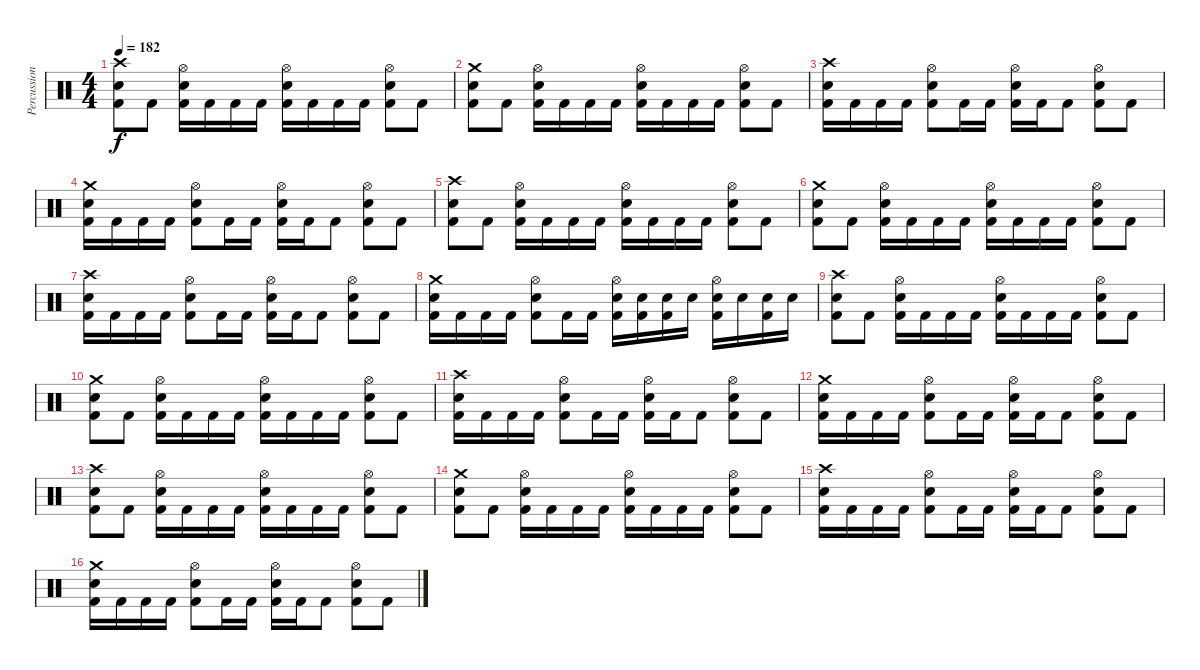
\track ("Percussion" "Percussion") {instrument percussion}
\staff {score}
\articulation defaults
\ts (4 4)
\tempo 182
\clef neutral
\ks c
("Crash high (hit)" "Snare (hit) 2" "Kick (hit) 2").8{dy f} "Kick (hit) 2".8 ("Hi-Hat (open)" "Snare (hit) 2" "Kick (hit) 2").16 "Kick (hit) 2".16 "Kick (hit) 2".16 "Kick (hit) 2".16 ("Hi-Hat (open)" "Snare (hit) 2" "Kick (hit) 2").16 "Kick (hit) 2".16 "Kick (hit) 2".16 "Kick (hit) 2".16 ("Hi-Hat (open)" "Snare (hit) 2" "Kick (hit) 2").8 "Kick (hit) 2".8 |
("Crash medium (hit)" "Snare (hit) 2" "Kick (hit) 2").8 "Kick (hit) 2".8 ("Hi-Hat (open)" "Snare (hit) 2" "Kick (hit) 2").16 "Kick (hit) 2".16 "Kick (hit) 2".16 "Kick (hit) 2".16 ("Hi-Hat (open)" "Snare (hit) 2" "Kick (hit) 2").16 "Kick (hit) 2".16 "Kick (hit) 2".16 "Kick (hit) 2".16 ("Hi-Hat (open)" "Snare (hit) 2" "Kick (hit) 2").8 "Kick (hit) 2".8 |
("Crash high (hit)" "Snare (hit) 2" "Kick (hit) 2").16 "Kick (hit) 2".16 "Kick (hit) 2".16 "Kick (hit) 2".16 ("Hi-Hat (open)" "Snare (hit) 2" "Kick (hit) 2").8 "Kick (hit) 2".16 "Kick (hit) 2".16 ("Hi-Hat (open)" "Snare (hit) 2" "Kick (hit) 2").16 "Kick (hit) 2".16 "Kick (hit) 2".8 ("Hi-Hat (open)" "Snare (hit) 2" "Kick (hit) 2").8 "Kick (hit) 2".8 |
("Crash medium (hit)" "Snare (hit) 2" "Kick (hit) 2").16 "Kick (hit) 2".16 "Kick (hit) 2".16 "Kick (hit) 2".16 ("Hi-Hat (open)" "Snare (hit) 2" "Kick (hit) 2").8 "Kick (hit) 2".16 "Kick (hit) 2".16 ("Hi-Hat (open)" "Snare (hit) 2" "Kick (hit) 2").16 "Kick (hit) 2".16 "Kick (hit) 2".8 ("Hi-Hat (open)" "Snare (hit) 2" "Kick (hit) 2").8 "Kick (hit) 2".8 |
("Crash high (hit)" "Snare (hit) 2" "Kick (hit) 2").8 "Kick (hit) 2".8 ("Hi-Hat (open)" "Snare (hit) 2" "Kick (hit) 2").16 "Kick (hit) 2".16 "Kick (hit) 2".16 "Kick (hit) 2".16 ("Hi-Hat (open)" "Snare (hit) 2" "Kick (hit) 2").16 "Kick (hit) 2".16 "Kick (hit) 2".16 "Kick (hit) 2".16 ("Hi-Hat (open)" "Snare (hit) 2" "Kick (hit) 2").8 "Kick (hit) 2".8 |
("Crash medium (hit)" "Snare (hit) 2" "Kick (hit) 2").8 "Kick (hit) 2".8 ("Hi-Hat (open)" "Snare (hit) 2" "Kick (hit) 2").16 "Kick (hit) 2".16 "Kick (hit) 2".16 "Kick (hit) 2".16 ("Hi-Hat (open)" "Snare (hit) 2" "Kick (hit) 2").16 "Kick (hit) 2".16 "Kick (hit) 2".16 "Kick (hit) 2".16 ("Hi-Hat (open)" "Snare (hit) 2" "Kick (hit) 2").8 "Kick (hit) 2".8 |
("Crash high (hit)" "Snare (hit) 2" "Kick (hit) 2").16 "Kick (hit) 2".16 "Kick (hit) 2".16 "Kick (hit) 2".16 ("Hi-Hat (open)" "Snare (hit) 2" "Kick (hit) 2").8 "Kick (hit) 2".16 "Kick (hit) 2".16 ("Hi-Hat (open)" "Snare (hit) 2" "Kick (hit) 2").16 "Kick (hit) 2".16 "Kick (hit) 2".8 ("Hi-Hat (open)" "Snare (hit) 2" "Kick (hit) 2").8 "Kick (hit) 2".8 |
("Crash medium (hit)" "Snare (hit) 2" "Kick (hit) 2").16 "Kick (hit) 2".16 "Kick (hit) 2".16 "Kick (hit) 2".16 ("Hi-Hat (open)" "Snare (hit) 2" "Kick (hit) 2").8 "Kick (hit) 2".16 "Kick (hit) 2".16 ("Hi-Hat (open)" "Snare (hit) 2" "Kick (hit) 2").16 ("Snare (hit) 2" "Kick (hit) 2").16 ("Snare (hit) 2" "Kick (hit) 2").16 "Snare (hit) 2".16 ("Hi-Hat (open)" "Snare (hit) 2" "Kick (hit) 2").16 "Snare (hit) 2".16 ("Snare (hit) 2" "Kick (hit) 2").16 "Snare (hit) 2".16 |
("Crash high (hit)" "Snare (hit) 2" "Kick (hit) 2").8 "Kick (hit) 2".8 ("Hi-Hat (open)" "Snare (hit) 2" "Kick (hit) 2").16 "Kick (hit) 2".16 "Kick (hit) 2".16 "Kick (hit) 2".16 ("Hi-Hat (open)" "Snare (hit) 2" "Kick (hit) 2").16 "Kick (hit) 2".16 "Kick (hit) 2".16 "Kick (hit) 2".16 ("Hi-Hat (open)" "Snare (hit) 2" "Kick (hit) 2").8 "Kick (hit) 2".8 |
("Crash medium (hit)" "Snare (hit) 2" "Kick (hit) 2").8 "Kick (hit) 2".8 ("Hi-Hat (open)" "Snare (hit) 2" "Kick (hit) 2").16 "Kick (hit) 2".16 "Kick (hit) 2".16 "Kick (hit) 2".16 ("Hi-Hat (open)" "Snare (hit) 2" "Kick (hit) 2").16 "Kick (hit) 2".16 "Kick (hit) 2".16 "Kick (hit) 2".16 ("Hi-Hat (open)" "Snare (hit) 2" "Kick (hit) 2").8 "Kick (hit) 2".8 |
("Crash high (hit)" "Snare (hit) 2" "Kick (hit) 2").16 "Kick (hit) 2".16 "Kick (hit) 2".16 "Kick (hit) 2".16 ("Hi-Hat (open)" "Snare (hit) 2" "Kick (hit) 2").8 "Kick (hit) 2".16 "Kick (hit) 2".16 ("Hi-Hat (open)" "Snare (hit) 2" "Kick (hit) 2").16 "Kick (hit) 2".16 "Kick (hit) 2".8 ("Hi-Hat (open)" "Snare (hit) 2" "Kick (hit) 2").8 "Kick (hit) 2".8 |
("Crash medium (hit)" "Snare (hit) 2" "Kick (hit) 2").16 "Kick (hit) 2".16 "Kick (hit) 2".16 "Kick (hit) 2".16 ("Hi-Hat (open)" "Snare (hit) 2" "Kick (hit) 2").8 "Kick (hit) 2".16 "Kick (hit) 2".16 ("Hi-Hat (open)" "Snare (hit) 2" "Kick (hit) 2").16 "Kick (hit) 2".16 "Kick (hit) 2".8 ("Hi-Hat (open)" "Snare (hit) 2" "Kick (hit) 2").8 "Kick (hit) 2".8 |
("Crash high (hit)" "Snare (hit) 2" "Kick (hit) 2").8 "Kick (hit) 2".8 ("Hi-Hat (open)" "Snare (hit) 2" "Kick (hit) 2").16 "Kick (hit) 2".16 "Kick (hit) 2".16 "Kick (hit) 2".16 ("Hi-Hat (open)" "Snare (hit) 2" "Kick (hit) 2").16 "Kick (hit) 2".16 "Kick (hit) 2".16 "Kick (hit) 2".16 ("Hi-Hat (open)" "Snare (hit) 2" "Kick (hit) 2").8 "Kick (hit) 2".8 |
("Crash medium (hit)" "Snare (hit) 2" "Kick (hit) 2").8 "Kick (hit) 2".8 ("Hi-Hat (open)" "Snare (hit) 2" "Kick (hit) 2").16 "Kick (hit) 2".16 "Kick (hit) 2".16 "Kick (hit) 2".16 ("Hi-Hat (open)" "Snare (hit) 2" "Kick (hit) 2").16 "Kick (hit) 2".16 "Kick (hit) 2".16 "Kick (hit) 2".16 ("Hi-Hat (open)" "Snare (hit) 2" "Kick (hit) 2").8 "Kick (hit) 2".8 |
("Crash high (hit)" "Snare (hit) 2" "Kick (hit) 2").16 "Kick (hit) 2".16 "Kick (hit) 2".16 "Kick (hit) 2".16 ("Hi-Hat (open)" "Snare (hit) 2" "Kick (hit) 2").8 "Kick (hit) 2".16 "Kick (hit) 2".16 ("Hi-Hat (open)" "Snare (hit) 2" "Kick (hit) 2").16 "Kick (hit) 2".16 "Kick (hit) 2".8 ("Hi-Hat (open)" "Snare (hit) 2" "Kick (hit) 2").8 "Kick (hit) 2".8 |
("Crash medium (hit)" "Snare (hit) 2" "Kick (hit) 2").16 "Kick (hit) 2".16 "Kick (hit) 2".16 "Kick (hit) 2".16 ("Hi-Hat (open)" "Snare (hit) 2" "Kick (hit) 2").8 "Kick (hit) 2".16 "Kick (hit) 2".16 ("Hi-Hat (open)" "Snare (hit) 2" "Kick (hit) 2").16 "Kick (hit) 2".16 "Kick (hit) 2".8 ("Hi-Hat (open)" "Snare (hit) 2" "Kick (hit) 2").8 "Kick (hit) 2".8
